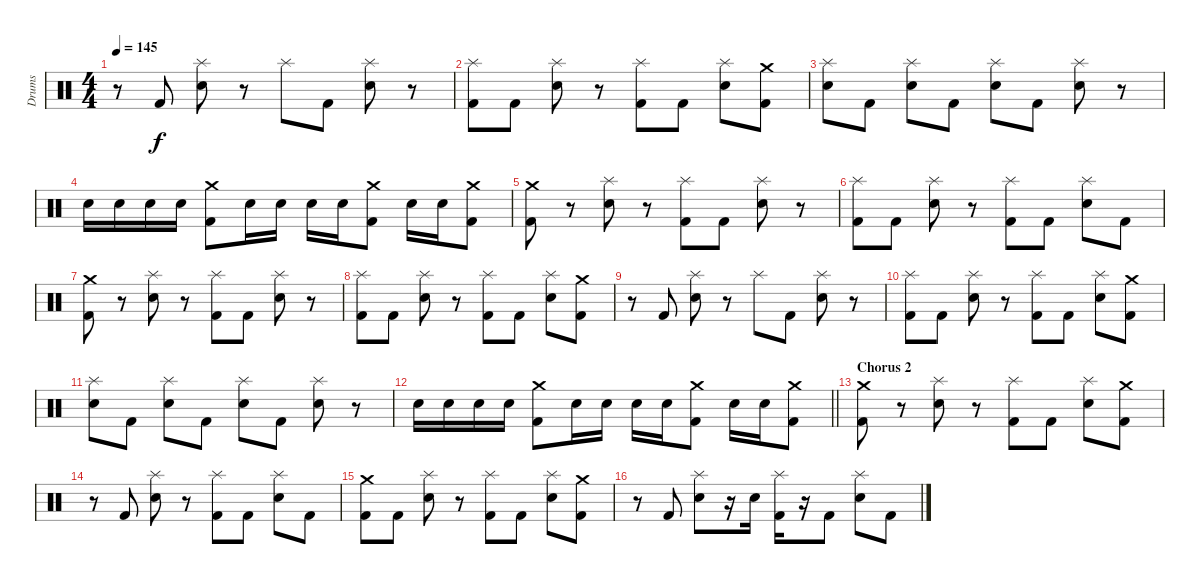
\track ("Drums" "Drums") {instrument percussion}
\staff {score}
\articulation defaults
\ts (4 4)
\tempo 145
\clef neutral
\ks c
r.8{dy f} "Kick (hit) 2".8 ("Splash (hit)" "Snare (hit) 2").8 r.8 "Splash (hit)".8 "Kick (hit) 2".8 ("Splash (hit)" "Snare (hit) 2").8 r.8 |
("Splash (hit)" "Kick (hit) 2").8 "Kick (hit) 2".8 ("Splash (hit)" "Snare (hit) 2").8 r.8 ("Splash (hit)" "Kick (hit) 2").8 "Kick (hit) 2".8 ("Splash (hit)" "Snare (hit) 2").8 ("Crash medium (hit)" "Kick (hit) 2").8 |
("Splash (hit)" "Snare (hit) 2").8 "Kick (hit) 2".8 ("Splash (hit)" "Snare (hit) 2").8 "Kick (hit) 2".8 ("Splash (hit)" "Snare (hit) 2").8 "Kick (hit) 2".8 ("Splash (hit)" "Snare (hit) 2").8 r.8 |
"Snare (hit) 2".16 "Snare (hit) 2".16 "Snare (hit) 2".16 "Snare (hit) 2".16 ("Crash medium (hit)" "Kick (hit) 2").8 "Snare (hit) 2".16 "Snare (hit) 2".16 "Snare (hit) 2".16 "Snare (hit) 2".16 ("Crash medium (hit)" "Kick (hit) 2").8 "Snare (hit) 2".16 "Snare (hit) 2".16 ("Kick (hit) 2" "Crash medium (hit)").8 |
("Crash medium (hit)" "Kick (hit) 2").8 r.8 ("Splash (hit)" "Snare (hit) 2").8 r.8 ("Splash (hit)" "Kick (hit) 2").8 "Kick (hit) 2".8 ("Splash (hit)" "Snare (hit) 2").8 r.8 |
("Splash (hit)" "Kick (hit) 2").8 "Kick (hit) 2".8 ("Splash (hit)" "Snare (hit) 2").8 r.8 ("Splash (hit)" "Kick (hit) 2").8 "Kick (hit) 2".8 ("Splash (hit)" "Snare (hit) 2").8 "Kick (hit) 2".8 |
("Crash medium (hit)" "Kick (hit) 2").8 r.8 ("Splash (hit)" "Snare (hit) 2").8 r.8 ("Splash (hit)" "Kick (hit) 2").8 "Kick (hit) 2".8 ("Splash (hit)" "Snare (hit) 2").8 r.8 |
("Splash (hit)" "Kick (hit) 2").8 "Kick (hit) 2".8 ("Splash (hit)" "Snare (hit) 2").8 r.8 ("Splash (hit)" "Kick (hit) 2").8 "Kick (hit) 2".8 ("Splash (hit)" "Snare (hit) 2").8 ("Crash medium (hit)" "Kick (hit) 2").8 |
r.8 "Kick (hit) 2".8 ("Splash (hit)" "Snare (hit) 2").8 r.8 "Splash (hit)".8 "Kick (hit) 2".8 ("Splash (hit)" "Snare (hit) 2").8 r.8 |
("Splash (hit)" "Kick (hit) 2").8 "Kick (hit) 2".8 ("Splash (hit)" "Snare (hit) 2").8 r.8 ("Splash (hit)" "Kick (hit) 2").8 "Kick (hit) 2".8 ("Splash (hit)" "Snare (hit) 2").8 ("Crash medium (hit)" "Kick (hit) 2").8 |
("Splash (hit)" "Snare (hit) 2").8 "Kick (hit) 2".8 ("Splash (hit)" "Snare (hit) 2").8 "Kick (hit) 2".8 ("Splash (hit)" "Snare (hit) 2").8 "Kick (hit) 2".8 ("Splash (hit)" "Snare (hit) 2").8 r.8 |
\barLineRight lightlight "Snare (hit) 2".16 "Snare (hit) 2".16 "Snare (hit) 2".16 "Snare (hit) 2".16
("Crash medium (hit)" "Kick (hit) 2").8 "Snare (hit) 2".16 "Snare (hit) 2".16 "Snare (hit) 2".16 "Snare (hit) 2".16 ("Crash medium (hit)" "Kick (hit) 2").8 "Snare (hit) 2".16 "Snare (hit) 2".16 ("Kick (hit) 2" "Crash medium (hit)").8 |
\section ("" "Chorus 2")
("Crash medium (hit)" "Kick (hit) 2").8 r.8 ("Splash (hit)" "Snare (hit) 2").8 r.8 ("Splash (hit)" "Kick (hit) 2").8 "Kick (hit) 2".8 ("Splash (hit)" "Snare (hit) 2").8 ("Kick (hit) 2" "Crash medium (hit)").8 |
r.8 "Kick (hit) 2".8 ("Splash (hit)" "Snare (hit) 2").8 r.8 ("Splash (hit)" "Kick (hit) 2").8 "Kick (hit) 2".8 ("Splash (hit)" "Snare (hit) 2").8 "Kick (hit) 2".8 |
("Crash medium (hit)" "Kick (hit) 2").8 "Kick (hit) 2".8 ("Snare (hit) 2" "Splash (hit)").8 r.8 ("Splash (hit)" "Kick (hit) 2").8 "Kick (hit) 2".8 ("Splash (hit)" "Snare (hit) 2").8 ("Kick (hit) 2" "Crash medium (hit)").8 |
r.8 "Kick (hit) 2".8 ("Splash (hit)" "Snare (hit) 2").8 r.16 "Snare (hit) 2".16 ("Splash (hit)" "Kick (hit) 2").16 r.16 "Kick (hit) 2".8 ("Splash (hit)" "Snare (hit) 2").8 "Kick (hit) 2".8
